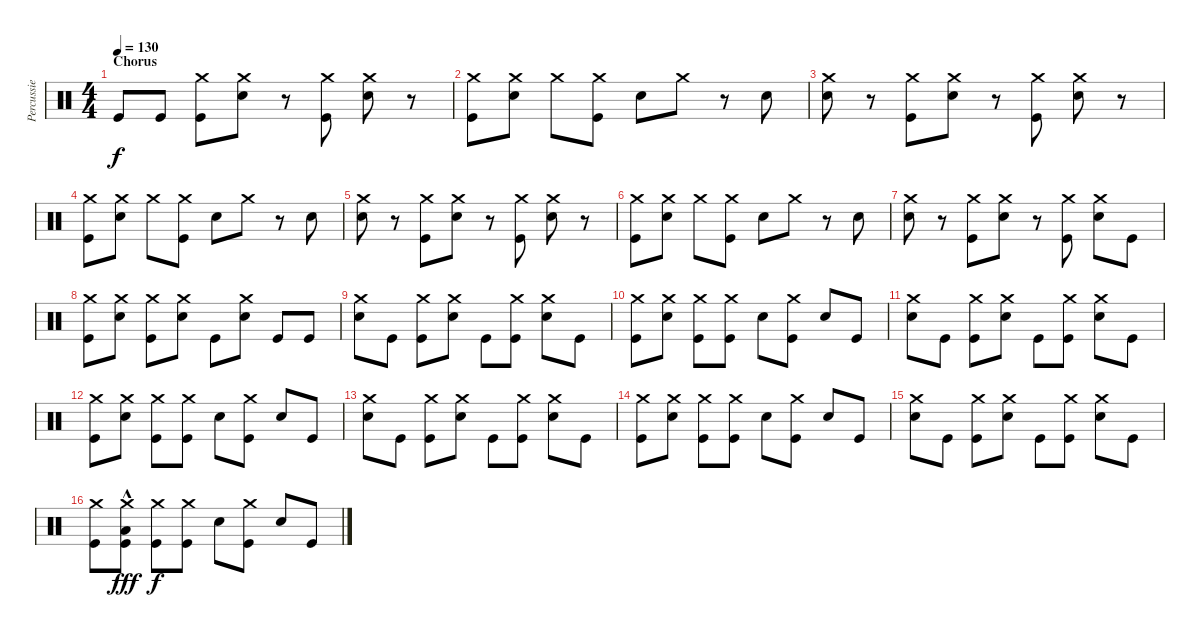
\track ("Percussie" "Percussie") {instrument percussion}
\staff {score}
\articulation defaults
\ts (4 4)
\section ("" "Chorus")
\tempo 130
\clef neutral
\ks c "Kick (hit)".8{dy f} "Kick (hit)".8
("Crash medium (hit)" "Kick (hit)").8 ("Crash medium (hit)" "Snare (hit) 2").8 r.8 ("Crash medium (hit)" "Kick (hit)").8 ("Crash medium (hit)" "Snare (hit) 2").8 r.8 |
("Crash medium (hit)" "Kick (hit)").8 ("Crash medium (hit)" "Snare (hit) 2").8 "Crash medium (hit)".8 ("Crash medium (hit)" "Kick (hit)").8 "Snare (hit) 2".8 "Crash medium (hit)".8 r.8 "Snare (hit) 2".8 |
("Crash medium (hit)" "Snare (hit) 2").8 r.8 ("Crash medium (hit)" "Kick (hit)").8 ("Crash medium (hit)" "Snare (hit) 2").8 r.8 ("Crash medium (hit)" "Kick (hit)").8 ("Crash medium (hit)" "Snare (hit) 2").8 r.8 |
("Crash medium (hit)" "Kick (hit)").8 ("Crash medium (hit)" "Snare (hit) 2").8 "Crash medium (hit)".8 ("Crash medium (hit)" "Kick (hit)").8 "Snare (hit) 2".8 "Crash medium (hit)".8 r.8 "Snare (hit) 2".8 |
("Crash medium (hit)" "Snare (hit) 2").8 r.8 ("Crash medium (hit)" "Kick (hit)").8 ("Crash medium (hit)" "Snare (hit) 2").8 r.8 ("Crash medium (hit)" "Kick (hit)").8 ("Crash medium (hit)" "Snare (hit) 2").8 r.8 |
("Crash medium (hit)" "Kick (hit)").8 ("Crash medium (hit)" "Snare (hit) 2").8 "Crash medium (hit)".8 ("Crash medium (hit)" "Kick (hit)").8 "Snare (hit) 2".8 "Crash medium (hit)".8 r.8 "Snare (hit) 2".8 |
("Crash medium (hit)" "Snare (hit) 2").8 r.8 ("Crash medium (hit)" "Kick (hit)").8 ("Crash medium (hit)" "Snare (hit) 2").8 r.8 ("Crash medium (hit)" "Kick (hit)").8 ("Crash medium (hit)" "Snare (hit) 2").8 "Kick (hit)".8 |
("Crash medium (hit)" "Kick (hit)").8 ("Crash medium (hit)" "Snare (hit) 2").8 ("Crash medium (hit)" "Kick (hit)").8 ("Crash medium (hit)" "Snare (hit) 2").8 "Kick (hit)".8 ("Crash medium (hit)" "Snare (hit) 2").8 "Kick (hit)".8 "Kick (hit)".8 |
("Crash medium (hit)" "Snare (hit) 2").8 "Kick (hit)".8 ("Crash medium (hit)" "Kick (hit)").8 ("Crash medium (hit)" "Snare (hit) 2").8 "Kick (hit)".8 ("Crash medium (hit)" "Kick (hit)").8 ("Crash medium (hit)" "Snare (hit) 2").8 "Kick (hit)".8 |
("Crash medium (hit)" "Kick (hit)").8 ("Crash medium (hit)" "Snare (hit) 2").8 ("Crash medium (hit)" "Kick (hit)").8 ("Crash medium (hit)" "Kick (hit)").8 "Snare (hit) 2".8 ("Crash medium (hit)" "Kick (hit)").8 "Snare (hit) 2".8 "Kick (hit)".8 |
("Crash medium (hit)" "Snare (hit) 2").8 "Kick (hit)".8 ("Crash medium (hit)" "Kick (hit)").8 ("Crash medium (hit)" "Snare (hit) 2").8 "Kick (hit)".8 ("Crash medium (hit)" "Kick (hit)").8 ("Crash medium (hit)" "Snare (hit) 2").8 "Kick (hit)".8 |
("Crash medium (hit)" "Kick (hit)").8 ("Crash medium (hit)" "Snare (hit) 2").8 ("Crash medium (hit)" "Kick (hit)").8 ("Crash medium (hit)" "Kick (hit)").8 "Snare (hit) 2".8 ("Crash medium (hit)" "Kick (hit)").8 "Snare (hit) 2".8 "Kick (hit)".8 |
("Crash medium (hit)" "Snare (hit) 2").8 "Kick (hit)".8 ("Crash medium (hit)" "Kick (hit)").8 ("Crash medium (hit)" "Snare (hit) 2").8 "Kick (hit)".8 ("Crash medium (hit)" "Kick (hit)").8 ("Crash medium (hit)" "Snare (hit) 2").8 "Kick (hit)".8 |
("Crash medium (hit)" "Kick (hit)").8 ("Crash medium (hit)" "Snare (hit) 2").8 ("Crash medium (hit)" "Kick (hit)").8 ("Crash medium (hit)" "Kick (hit)").8 "Snare (hit) 2".8 ("Crash medium (hit)" "Kick (hit)").8 "Snare (hit) 2".8 "Kick (hit)".8 |
("Crash medium (hit)" "Snare (hit) 2").8 "Kick (hit)".8 ("Crash medium (hit)" "Kick (hit)").8 ("Crash medium (hit)" "Snare (hit) 2").8 "Kick (hit)".8 ("Crash medium (hit)" "Kick (hit)").8 ("Crash medium (hit)" "Snare (hit) 2").8 "Kick (hit)".8 |
("Crash medium (hit)" "Kick (hit)").8 ("Low Floor Tom (hit)"{hac} "Crash medium (hit)" "Kick (hit)"{hac}).8{dy fff} ("Crash medium (hit)" "Kick (hit)").8{dy f} ("Crash medium (hit)" "Kick (hit)").8 "Snare (hit) 2".8 ("Crash medium (hit)" "Kick (hit)").8 "Snare (hit) 2".8 "Kick (hit)".8
